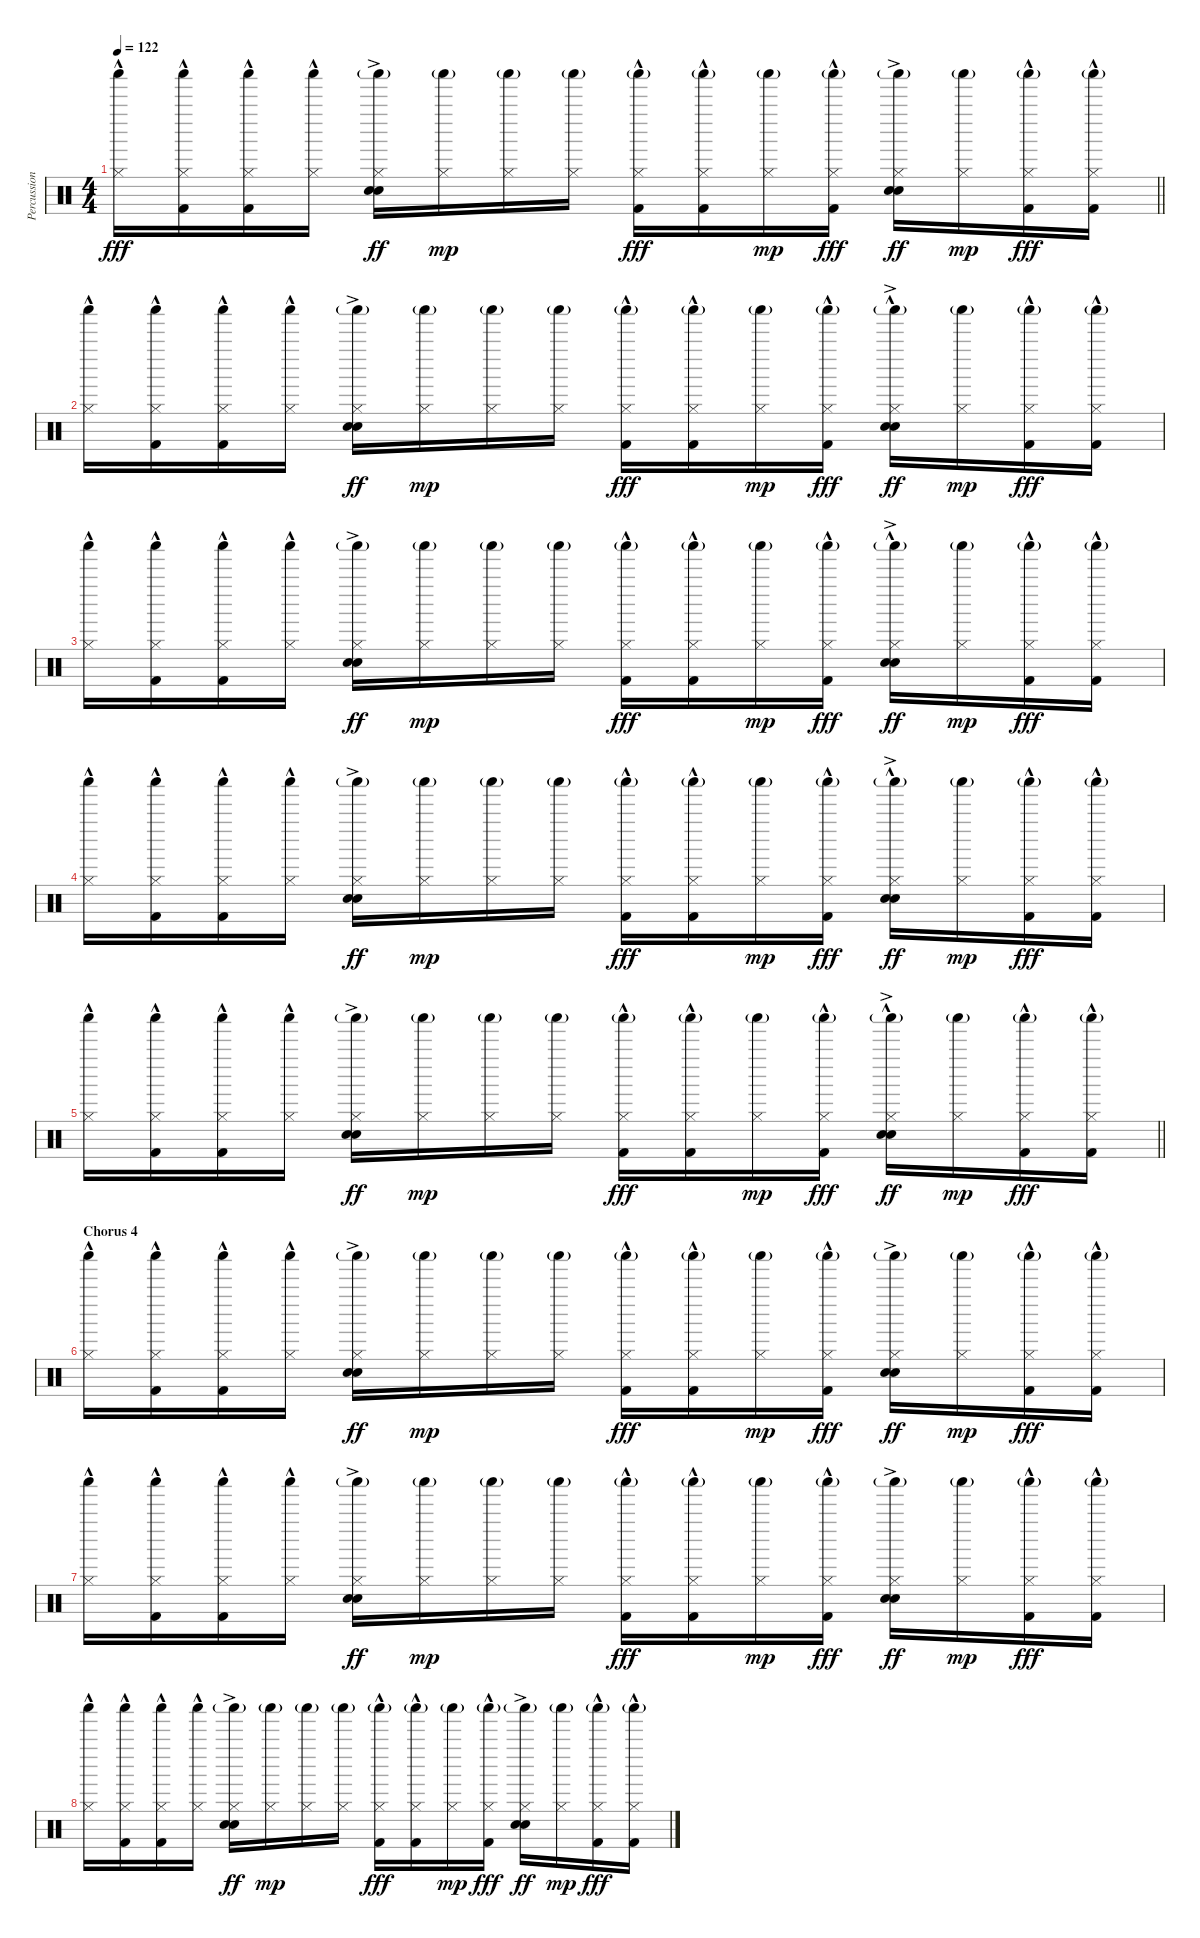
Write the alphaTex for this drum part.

\track ("Percussion" "Percussion") {instrument percussion}
\staff {score}
\articulation defaults
\ts (4 4)
\tempo 122
\clef neutral
\barLineRight lightlight
\ks c
("Shaker (hit)" "Hi-Hat (closed)"{hac}).16{dy fff} ("Shaker (hit)" "Hi-Hat (closed)"{hac} "Kick (hit) 2"{hac}).16 ("Shaker (hit)" "Hi-Hat (closed)"{hac} "Kick (hit) 2"{hac}).16 ("Shaker (hit)" "Hi-Hat (closed)"{hac}).16 ("Shaker (hit)"{g} "Hi-Hat (closed)" "Hand Clap (hit)" "Snare (hit) 2"{ac}).16{dy ff} ("Shaker (hit)"{g} "Hi-Hat (closed)").16{dy mp} ("Shaker (hit)"{g} "Hi-Hat (closed)").16 ("Shaker (hit)"{g} "Hi-Hat (closed)").16 ("Shaker (hit)"{g} "Hi-Hat (closed)" "Kick (hit) 2"{hac}).16{dy fff} ("Shaker (hit)"{g} "Hi-Hat (closed)" "Kick (hit) 2"{hac}).16 ("Shaker (hit)"{g} "Hi-Hat (closed)").16{dy mp} ("Shaker (hit)"{g} "Hi-Hat (closed)" "Kick (hit) 2"{hac}).16{dy fff} ("Shaker (hit)"{g} "Hi-Hat (closed)" "Hand Clap (hit)"{ac} "Snare (hit) 2"{ac}).16{dy ff} ("Shaker (hit)"{g} "Hi-Hat (closed)").16{dy mp} ("Shaker (hit)"{g} "Hi-Hat (closed)" "Kick (hit) 2"{hac}).16{dy fff} ("Shaker (hit)"{g} "Hi-Hat (closed)" "Kick (hit) 2"{hac}).16 |
("Shaker (hit)" "Hi-Hat (closed)"{hac}).16 ("Shaker (hit)" "Hi-Hat (closed)"{hac} "Kick (hit) 2"{hac}).16 ("Shaker (hit)" "Hi-Hat (closed)"{hac} "Kick (hit) 2"{hac}).16 ("Shaker (hit)" "Hi-Hat (closed)"{hac}).16 ("Shaker (hit)"{g} "Hi-Hat (closed)" "Hand Clap (hit)"{ac} "Snare (hit) 2"{ac}).16{dy ff} ("Shaker (hit)"{g} "Hi-Hat (closed)").16{dy mp} ("Shaker (hit)"{g} "Hi-Hat (closed)").16 ("Shaker (hit)"{g} "Hi-Hat (closed)").16 ("Shaker (hit)"{g} "Hi-Hat (closed)" "Kick (hit) 2"{hac}).16{dy fff} ("Shaker (hit)"{g} "Hi-Hat (closed)" "Kick (hit) 2"{hac}).16 ("Shaker (hit)"{g} "Hi-Hat (closed)").16{dy mp} ("Shaker (hit)"{g} "Hi-Hat (closed)" "Kick (hit) 2"{hac}).16{dy fff} ("Shaker (hit)"{g} "Hi-Hat (closed)" "Hand Clap (hit)"{hac} "Snare (hit) 2"{ac}).16{dy ff} ("Shaker (hit)"{g} "Hi-Hat (closed)").16{dy mp} ("Shaker (hit)"{g} "Hi-Hat (closed)" "Kick (hit) 2"{hac}).16{dy fff} ("Shaker (hit)"{g} "Hi-Hat (closed)" "Kick (hit) 2"{hac}).16 |
("Shaker (hit)" "Hi-Hat (closed)"{hac}).16 ("Shaker (hit)" "Hi-Hat (closed)"{hac} "Kick (hit) 2"{hac}).16 ("Shaker (hit)" "Hi-Hat (closed)"{hac} "Kick (hit) 2"{hac}).16 ("Shaker (hit)" "Hi-Hat (closed)"{hac}).16 ("Shaker (hit)"{g} "Hi-Hat (closed)" "Hand Clap (hit)"{ac} "Snare (hit) 2"{ac}).16{dy ff} ("Shaker (hit)"{g} "Hi-Hat (closed)").16{dy mp} ("Shaker (hit)"{g} "Hi-Hat (closed)").16 ("Shaker (hit)"{g} "Hi-Hat (closed)").16 ("Shaker (hit)"{g} "Hi-Hat (closed)" "Kick (hit) 2"{hac}).16{dy fff} ("Shaker (hit)"{g} "Hi-Hat (closed)" "Kick (hit) 2"{hac}).16 ("Shaker (hit)"{g} "Hi-Hat (closed)").16{dy mp} ("Shaker (hit)"{g} "Hi-Hat (closed)" "Kick (hit) 2"{hac}).16{dy fff} ("Shaker (hit)"{g} "Hi-Hat (closed)" "Hand Clap (hit)"{hac} "Snare (hit) 2"{ac}).16{dy ff} ("Shaker (hit)"{g} "Hi-Hat (closed)").16{dy mp} ("Shaker (hit)"{g} "Hi-Hat (closed)" "Kick (hit) 2"{hac}).16{dy fff} ("Shaker (hit)"{g} "Hi-Hat (closed)" "Kick (hit) 2"{hac}).16 |
("Shaker (hit)" "Hi-Hat (closed)"{hac}).16 ("Shaker (hit)" "Hi-Hat (closed)"{hac} "Kick (hit) 2"{hac}).16 ("Shaker (hit)" "Hi-Hat (closed)"{hac} "Kick (hit) 2"{hac}).16 ("Shaker (hit)" "Hi-Hat (closed)"{hac}).16 ("Shaker (hit)"{g} "Hi-Hat (closed)" "Hand Clap (hit)"{ac} "Snare (hit) 2"{ac}).16{dy ff} ("Shaker (hit)"{g} "Hi-Hat (closed)").16{dy mp} ("Shaker (hit)"{g} "Hi-Hat (closed)").16 ("Shaker (hit)"{g} "Hi-Hat (closed)").16 ("Shaker (hit)"{g} "Hi-Hat (closed)" "Kick (hit) 2"{hac}).16{dy fff} ("Shaker (hit)"{g} "Hi-Hat (closed)" "Kick (hit) 2"{hac}).16 ("Shaker (hit)"{g} "Hi-Hat (closed)").16{dy mp} ("Shaker (hit)"{g} "Hi-Hat (closed)" "Kick (hit) 2"{hac}).16{dy fff} ("Shaker (hit)"{g} "Hi-Hat (closed)" "Hand Clap (hit)"{hac} "Snare (hit) 2"{ac}).16{dy ff} ("Shaker (hit)"{g} "Hi-Hat (closed)").16{dy mp} ("Shaker (hit)"{g} "Hi-Hat (closed)" "Kick (hit) 2"{hac}).16{dy fff} ("Shaker (hit)"{g} "Hi-Hat (closed)" "Kick (hit) 2"{hac}).16 |
\barLineRight lightlight
("Shaker (hit)" "Hi-Hat (closed)"{hac}).16 ("Shaker (hit)" "Hi-Hat (closed)"{hac} "Kick (hit) 2"{hac}).16 ("Shaker (hit)" "Hi-Hat (closed)"{hac} "Kick (hit) 2"{hac}).16 ("Shaker (hit)" "Hi-Hat (closed)"{hac}).16 ("Shaker (hit)"{g} "Hi-Hat (closed)" "Hand Clap (hit)"{ac} "Snare (hit) 2"{ac}).16{dy ff} ("Shaker (hit)"{g} "Hi-Hat (closed)").16{dy mp} ("Shaker (hit)"{g} "Hi-Hat (closed)").16 ("Shaker (hit)"{g} "Hi-Hat (closed)").16 ("Shaker (hit)"{g} "Hi-Hat (closed)" "Kick (hit) 2"{hac}).16{dy fff} ("Shaker (hit)"{g} "Hi-Hat (closed)" "Kick (hit) 2"{hac}).16 ("Shaker (hit)"{g} "Hi-Hat (closed)").16{dy mp} ("Shaker (hit)"{g} "Hi-Hat (closed)" "Kick (hit) 2"{hac}).16{dy fff} ("Shaker (hit)"{g} "Hi-Hat (closed)" "Hand Clap (hit)"{hac} "Snare (hit) 2"{ac}).16{dy ff} ("Shaker (hit)"{g} "Hi-Hat (closed)").16{dy mp} ("Shaker (hit)"{g} "Hi-Hat (closed)" "Kick (hit) 2"{hac}).16{dy fff} ("Shaker (hit)"{g} "Hi-Hat (closed)" "Kick (hit) 2"{hac}).16 |
\section ("" "Chorus 4")
("Shaker (hit)" "Hi-Hat (closed)"{hac}).16 ("Shaker (hit)" "Hi-Hat (closed)"{hac} "Kick (hit) 2"{hac}).16 ("Shaker (hit)" "Hi-Hat (closed)"{hac} "Kick (hit) 2"{hac}).16 ("Shaker (hit)" "Hi-Hat (closed)"{hac}).16 ("Shaker (hit)"{g} "Hi-Hat (closed)" "Hand Clap (hit)" "Snare (hit) 2"{ac}).16{dy ff} ("Shaker (hit)"{g} "Hi-Hat (closed)").16{dy mp} ("Shaker (hit)"{g} "Hi-Hat (closed)").16 ("Shaker (hit)"{g} "Hi-Hat (closed)").16 ("Shaker (hit)"{g} "Hi-Hat (closed)" "Kick (hit) 2"{hac}).16{dy fff} ("Shaker (hit)"{g} "Hi-Hat (closed)" "Kick (hit) 2"{hac}).16 ("Shaker (hit)"{g} "Hi-Hat (closed)").16{dy mp} ("Shaker (hit)"{g} "Hi-Hat (closed)" "Kick (hit) 2"{hac}).16{dy fff} ("Shaker (hit)"{g} "Hi-Hat (closed)" "Hand Clap (hit)"{ac} "Snare (hit) 2"{ac}).16{dy ff} ("Shaker (hit)"{g} "Hi-Hat (closed)").16{dy mp} ("Shaker (hit)"{g} "Hi-Hat (closed)" "Kick (hit) 2"{hac}).16{dy fff} ("Shaker (hit)"{g} "Hi-Hat (closed)" "Kick (hit) 2"{hac}).16 |
("Shaker (hit)" "Hi-Hat (closed)"{hac}).16 ("Shaker (hit)" "Hi-Hat (closed)"{hac} "Kick (hit) 2"{hac}).16 ("Shaker (hit)" "Hi-Hat (closed)"{hac} "Kick (hit) 2"{hac}).16 ("Shaker (hit)" "Hi-Hat (closed)"{hac}).16 ("Shaker (hit)"{g} "Hi-Hat (closed)" "Hand Clap (hit)" "Snare (hit) 2"{ac}).16{dy ff} ("Shaker (hit)"{g} "Hi-Hat (closed)").16{dy mp} ("Shaker (hit)"{g} "Hi-Hat (closed)").16 ("Shaker (hit)"{g} "Hi-Hat (closed)").16 ("Shaker (hit)"{g} "Hi-Hat (closed)" "Kick (hit) 2"{hac}).16{dy fff} ("Shaker (hit)"{g} "Hi-Hat (closed)" "Kick (hit) 2"{hac}).16 ("Shaker (hit)"{g} "Hi-Hat (closed)").16{dy mp} ("Shaker (hit)"{g} "Hi-Hat (closed)" "Kick (hit) 2"{hac}).16{dy fff} ("Shaker (hit)"{g} "Hi-Hat (closed)" "Hand Clap (hit)"{ac} "Snare (hit) 2"{ac}).16{dy ff} ("Shaker (hit)"{g} "Hi-Hat (closed)").16{dy mp} ("Shaker (hit)"{g} "Hi-Hat (closed)" "Kick (hit) 2"{hac}).16{dy fff} ("Shaker (hit)"{g} "Hi-Hat (closed)" "Kick (hit) 2"{hac}).16 |
("Shaker (hit)" "Hi-Hat (closed)"{hac}).16 ("Shaker (hit)" "Hi-Hat (closed)"{hac} "Kick (hit) 2"{hac}).16 ("Shaker (hit)" "Hi-Hat (closed)"{hac} "Kick (hit) 2"{hac}).16 ("Shaker (hit)" "Hi-Hat (closed)"{hac}).16 ("Shaker (hit)"{g} "Hi-Hat (closed)" "Hand Clap (hit)" "Snare (hit) 2"{ac}).16{dy ff} ("Shaker (hit)"{g} "Hi-Hat (closed)").16{dy mp} ("Shaker (hit)"{g} "Hi-Hat (closed)").16 ("Shaker (hit)"{g} "Hi-Hat (closed)").16 ("Shaker (hit)"{g} "Hi-Hat (closed)" "Kick (hit) 2"{hac}).16{dy fff} ("Shaker (hit)"{g} "Hi-Hat (closed)" "Kick (hit) 2"{hac}).16 ("Shaker (hit)"{g} "Hi-Hat (closed)").16{dy mp} ("Shaker (hit)"{g} "Hi-Hat (closed)" "Kick (hit) 2"{hac}).16{dy fff} ("Shaker (hit)"{g} "Hi-Hat (closed)" "Hand Clap (hit)"{ac} "Snare (hit) 2"{ac}).16{dy ff} ("Shaker (hit)"{g} "Hi-Hat (closed)").16{dy mp} ("Shaker (hit)"{g} "Hi-Hat (closed)" "Kick (hit) 2"{hac}).16{dy fff} ("Shaker (hit)"{g} "Hi-Hat (closed)" "Kick (hit) 2"{hac}).16
